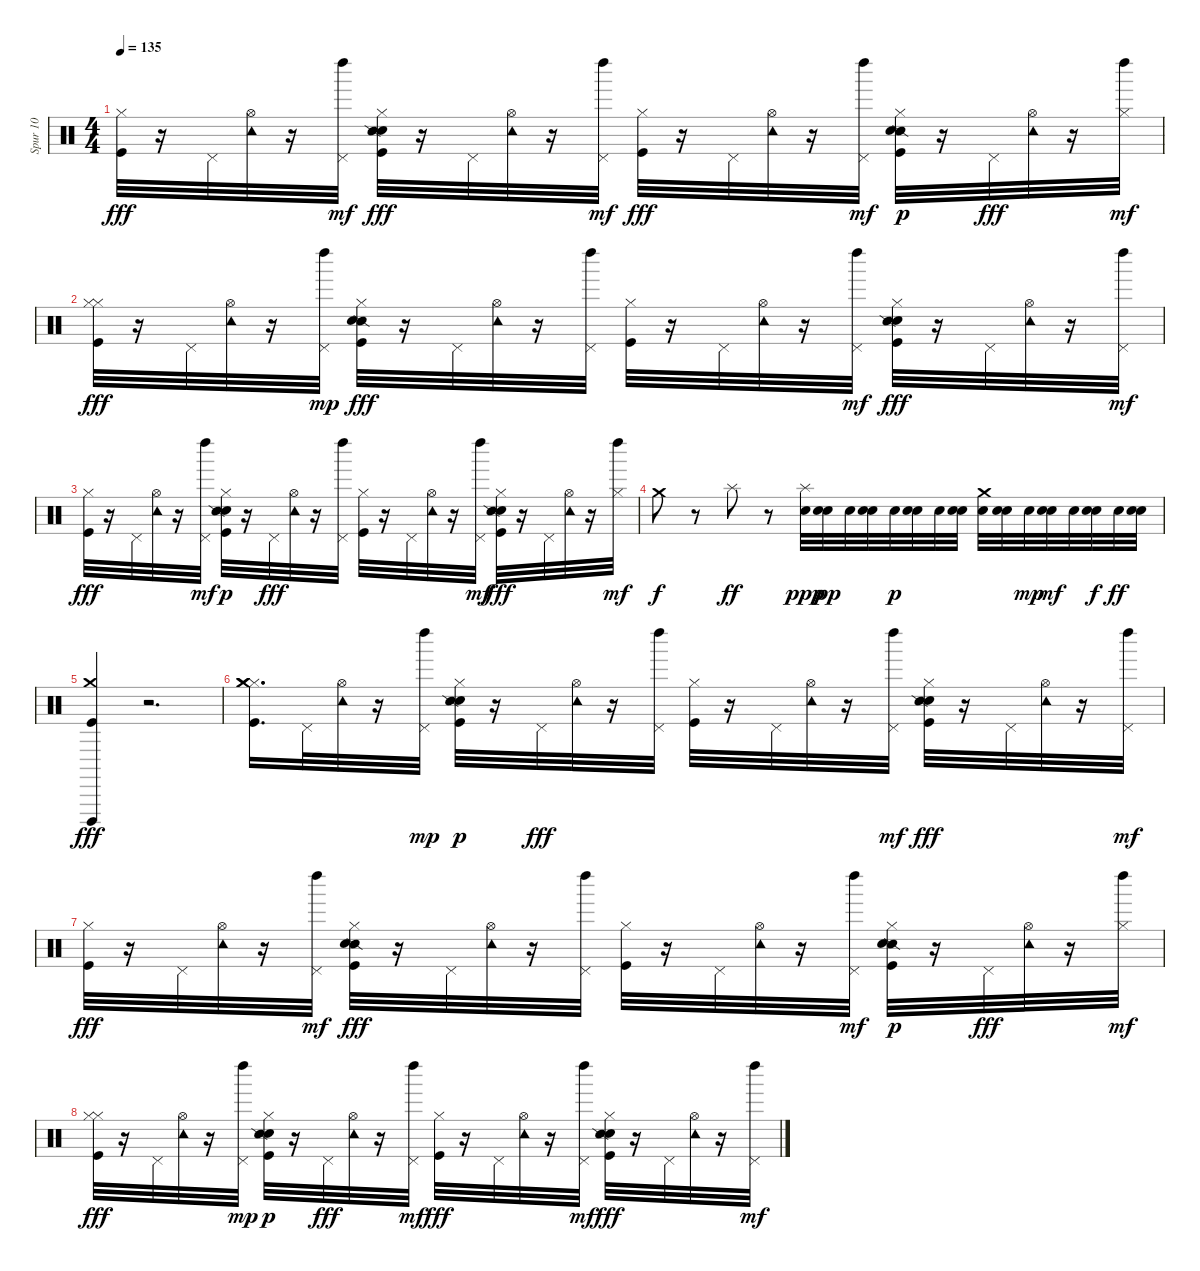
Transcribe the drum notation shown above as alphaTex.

\track ("Spur 10" "Spur 10") {instrument percussion}
\staff {score}
\articulation defaults
\ts (4 4)
\tempo 135
\clef neutral
\ks c
("Kick (hit)" "Hi-Hat (closed)").32{dy fff} r.16 "Pedal Hi-Hat (hit)".32 ("Hi-Hat (open)" "Tambourine (hit)").32 r.16 ("Pedal Hi-Hat (hit)" "Left Maraca (hit)").32{dy mf} ("Kick (hit)" "Hand Clap (hit)" "Hi-Hat (closed)" "Snare (side stick) 2").32{dy fff} r.16 "Pedal Hi-Hat (hit)".32 ("Tambourine (hit)" "Hi-Hat (open)").32 r.16 ("Pedal Hi-Hat (hit)" "Left Maraca (hit)").32{dy mf} ("Kick (hit)" "Hi-Hat (closed)").32{dy fff} r.16 "Pedal Hi-Hat (hit)".32 ("Hi-Hat (open)" "Tambourine (hit)").32 r.16 ("Pedal Hi-Hat (hit)" "Left Maraca (hit)").32{dy mf} ("Kick (hit)" "Hi-Hat (closed)" "Snare (side stick) 2" "Hand Clap (hit)").32{dy p} r.16 "Pedal Hi-Hat (hit)".32{dy fff} ("Hi-Hat (open)" "Tambourine (hit)").32 r.16 ("Hi-Hat (closed)" "Left Maraca (hit)").32{dy mf} |
("Hi-Hat (closed)" "Kick (hit)" "Hi-Hat (closed)").32{dy fff} r.16 "Pedal Hi-Hat (hit)".32 ("Tambourine (hit)" "Hi-Hat (open)").32 r.16 ("Pedal Hi-Hat (hit)" "Left Maraca (hit)").32{dy mp} ("Snare (side stick) 2" "Hand Clap (hit)" "Kick (hit)" "Hi-Hat (closed)").32{dy fff} r.16 "Pedal Hi-Hat (hit)".32 ("Tambourine (hit)" "Hi-Hat (open)").32 r.16 ("Left Maraca (hit)" "Pedal Hi-Hat (hit)").32 ("Hi-Hat (closed)" "Kick (hit)").32 r.16 "Pedal Hi-Hat (hit)".32 ("Hi-Hat (open)" "Tambourine (hit)").32 r.16 ("Left Maraca (hit)" "Pedal Hi-Hat (hit)").32{dy mf} ("Hand Clap (hit)" "Snare (side stick) 2" "Hi-Hat (closed)" "Kick (hit)").32{dy fff} r.16 "Pedal Hi-Hat (hit)".32 ("Tambourine (hit)" "Hi-Hat (open)").32 r.16 ("Pedal Hi-Hat (hit)" "Left Maraca (hit)").32{dy mf} |
("Kick (hit)" "Hi-Hat (closed)").32{dy fff} r.16 "Pedal Hi-Hat (hit)".32 ("Hi-Hat (open)" "Tambourine (hit)").32 r.16 ("Pedal Hi-Hat (hit)" "Left Maraca (hit)").32{dy mf} ("Kick (hit)" "Hi-Hat (closed)" "Hand Clap (hit)" "Snare (side stick) 2").32{dy p} r.16 "Pedal Hi-Hat (hit)".32{dy fff} ("Hi-Hat (open)" "Tambourine (hit)").32 r.16 ("Left Maraca (hit)" "Pedal Hi-Hat (hit)").32 ("Hi-Hat (closed)" "Kick (hit)").32 r.16 "Pedal Hi-Hat (hit)".32 ("Tambourine (hit)" "Hi-Hat (open)").32 r.16 ("Pedal Hi-Hat (hit)" "Left Maraca (hit)").32{dy mf} ("Hi-Hat (closed)" "Hand Clap (hit)" "Snare (side stick) 2" "Kick (hit)").32{dy fff} r.16 "Pedal Hi-Hat (hit)".32 ("Tambourine (hit)" "Hi-Hat (open)").32 r.16 ("Hi-Hat (closed)" "Left Maraca (hit)").32{dy mf} |
"Crash medium (hit)".8{dy f} r.8 "Splash (hit)".8{dy ff} r.8 ("Splash (hit)" "Snare (hit)").32{dy ppp} ("Snare (hit)" "Snare (hit)").32{dy pp} "Snare (hit)".32 ("Snare (hit)" "Snare (hit)").32 "Snare (hit)".32{dy p} ("Snare (hit)" "Snare (hit)").32 "Snare (hit)".32 ("Snare (hit)" "Snare (hit)").32 ("Crash medium (hit)" "Snare (hit)").32 ("Snare (hit)" "Snare (hit)").32 "Snare (hit)".32{dy mp} ("Snare (hit)" "Snare (hit)").32{dy mf} "Snare (hit)".32 ("Snare (hit)" "Snare (hit)").32{dy f} "Snare (hit)".32{dy ff} ("Snare (hit)" "Snare (hit)").32 |
("Crash medium (hit)" "Kick (hit)" "Cuica (open)").4{dy fff} r.2{d} |
("Hi-Hat (closed)" "Crash medium (hit)" "Kick (hit)" "Crash medium (hit)").16{d} "Pedal Hi-Hat (hit)".32 ("Tambourine (hit)" "Hi-Hat (open)").32 r.16 ("Pedal Hi-Hat (hit)" "Left Maraca (hit)").32{dy mp} ("Kick (hit)" "Hi-Hat (closed)" "Hand Clap (hit)" "Snare (side stick) 2").32{dy p} r.16 "Pedal Hi-Hat (hit)".32{dy fff} ("Tambourine (hit)" "Hi-Hat (open)").32 r.16 ("Left Maraca (hit)" "Pedal Hi-Hat (hit)").32 ("Kick (hit)" "Hi-Hat (closed)").32 r.16 "Pedal Hi-Hat (hit)".32 ("Hi-Hat (open)" "Tambourine (hit)").32 r.16 ("Left Maraca (hit)" "Pedal Hi-Hat (hit)").32{dy mf} ("Kick (hit)" "Hand Clap (hit)" "Snare (side stick) 2" "Hi-Hat (closed)").32{dy fff} r.16 "Pedal Hi-Hat (hit)".32 ("Hi-Hat (open)" "Tambourine (hit)").32 r.16 ("Left Maraca (hit)" "Pedal Hi-Hat (hit)").32{dy mf} |
("Hi-Hat (closed)" "Kick (hit)").32{dy fff} r.16 "Pedal Hi-Hat (hit)".32 ("Hi-Hat (open)" "Tambourine (hit)").32 r.16 ("Pedal Hi-Hat (hit)" "Left Maraca (hit)").32{dy mf} ("Snare (side stick) 2" "Kick (hit)" "Hand Clap (hit)" "Hi-Hat (closed)").32{dy fff} r.16 "Pedal Hi-Hat (hit)".32 ("Hi-Hat (open)" "Tambourine (hit)").32 r.16 ("Left Maraca (hit)" "Pedal Hi-Hat (hit)").32 ("Kick (hit)" "Hi-Hat (closed)").32 r.16 "Pedal Hi-Hat (hit)".32 ("Hi-Hat (open)" "Tambourine (hit)").32 r.16 ("Pedal Hi-Hat (hit)" "Left Maraca (hit)").32{dy mf} ("Hi-Hat (closed)" "Snare (side stick) 2" "Kick (hit)" "Hand Clap (hit)").32{dy p} r.16 "Pedal Hi-Hat (hit)".32{dy fff} ("Hi-Hat (open)" "Tambourine (hit)").32 r.16 ("Hi-Hat (closed)" "Left Maraca (hit)").32{dy mf} |
("Hi-Hat (closed)" "Kick (hit)" "Hi-Hat (closed)").32{dy fff} r.16 "Pedal Hi-Hat (hit)".32 ("Tambourine (hit)" "Hi-Hat (open)").32 r.16 ("Pedal Hi-Hat (hit)" "Left Maraca (hit)").32{dy mp} ("Kick (hit)" "Hi-Hat (closed)" "Hand Clap (hit)" "Snare (side stick) 2").32{dy p} r.16 "Pedal Hi-Hat (hit)".32{dy fff} ("Hi-Hat (open)" "Tambourine (hit)").32 r.16 ("Pedal Hi-Hat (hit)" "Left Maraca (hit)").32{dy mf} ("Hi-Hat (closed)" "Kick (hit)").32{dy fff} r.16 "Pedal Hi-Hat (hit)".32 ("Hi-Hat (open)" "Tambourine (hit)").32 r.16 ("Left Maraca (hit)" "Pedal Hi-Hat (hit)").32{dy mf} ("Hand Clap (hit)" "Kick (hit)" "Hi-Hat (closed)" "Snare (side stick) 2").32{dy fff} r.16 "Pedal Hi-Hat (hit)".32 ("Tambourine (hit)" "Hi-Hat (open)").32 r.16 ("Pedal Hi-Hat (hit)" "Left Maraca (hit)").32{dy mf}
